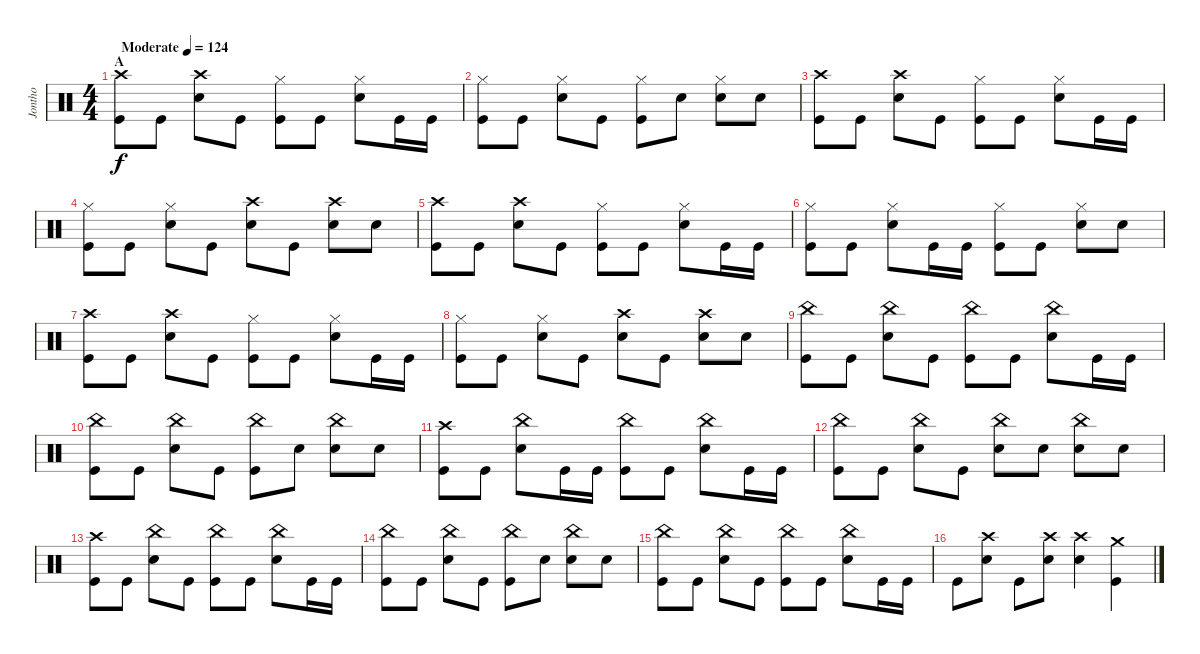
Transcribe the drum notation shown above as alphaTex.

\track ("Jontho" "Jontho") {instrument percussion}
\staff {score}
\articulation defaults
\ts (4 4)
\section ("" "A")
\tempo (124 "Moderate")
\clef neutral
\ks c
("Crash high (hit)" "Kick (hit)").8{dy f} "Kick (hit)".8 ("Crash high (hit)" "Snare (hit) 2").8 "Kick (hit)".8 ("Hi-Hat (closed)" "Kick (hit)").8 "Kick (hit)".8 ("Hi-Hat (closed)" "Snare (hit) 2").8 "Kick (hit)".16 "Kick (hit)".16 |
("Hi-Hat (closed)" "Kick (hit)").8 "Kick (hit)".8 ("Hi-Hat (closed)" "Snare (hit) 2").8 "Kick (hit)".8 ("Hi-Hat (closed)" "Kick (hit)").8 "Snare (hit) 2".8 ("Hi-Hat (closed)" "Snare (hit) 2").8 "Snare (hit) 2".8 |
("Crash high (hit)" "Kick (hit)").8 "Kick (hit)".8 ("Crash high (hit)" "Snare (hit) 2").8 "Kick (hit)".8 ("Hi-Hat (closed)" "Kick (hit)").8 "Kick (hit)".8 ("Hi-Hat (closed)" "Snare (hit) 2").8 "Kick (hit)".16 "Kick (hit)".16 |
("Hi-Hat (closed)" "Kick (hit)").8 "Kick (hit)".8 ("Hi-Hat (closed)" "Snare (hit) 2").8 "Kick (hit)".8 ("Crash high (hit)" "Snare (hit) 2").8 "Kick (hit)".8 ("Crash high (hit)" "Snare (hit) 2").8 "Snare (hit) 2".8 |
("Crash high (hit)" "Kick (hit)").8 "Kick (hit)".8 ("Crash high (hit)" "Snare (hit) 2").8 "Kick (hit)".8 ("Hi-Hat (closed)" "Kick (hit)").8 "Kick (hit)".8 ("Hi-Hat (closed)" "Snare (hit) 2").8 "Kick (hit)".16 "Kick (hit)".16 |
("Hi-Hat (closed)" "Kick (hit)").8 "Kick (hit)".8 ("Hi-Hat (closed)" "Snare (hit) 2").8 "Kick (hit)".16 "Kick (hit)".16 ("Hi-Hat (closed)" "Kick (hit)").8 "Kick (hit)".8 ("Hi-Hat (closed)" "Snare (hit) 2").8 "Snare (hit) 2".8 |
("Crash high (hit)" "Kick (hit)").8 "Kick (hit)".8 ("Crash high (hit)" "Snare (hit) 2").8 "Kick (hit)".8 ("Hi-Hat (closed)" "Kick (hit)").8 "Kick (hit)".8 ("Hi-Hat (closed)" "Snare (hit) 2").8 "Kick (hit)".16 "Kick (hit)".16 |
("Hi-Hat (closed)" "Kick (hit)").8 "Kick (hit)".8 ("Hi-Hat (closed)" "Snare (hit) 2").8 "Kick (hit)".8 ("Crash high (hit)" "Snare (hit) 2").8 "Kick (hit)".8 ("Crash high (hit)" "Snare (hit) 2").8 "Snare (hit) 2".8 |
("China (hit)" "Kick (hit)").8 "Kick (hit)".8 ("China (hit)" "Snare (hit) 2").8 "Kick (hit)".8 ("China (hit)" "Kick (hit)").8 "Kick (hit)".8 ("China (hit)" "Snare (hit) 2").8 "Kick (hit)".16 "Kick (hit)".16 |
("China (hit)" "Kick (hit)").8 "Kick (hit)".8 ("China (hit)" "Snare (hit) 2").8 "Kick (hit)".8 ("China (hit)" "Kick (hit)").8 "Snare (hit) 2".8 ("China (hit)" "Snare (hit) 2").8 "Snare (hit) 2".8 |
("Crash high (hit)" "Kick (hit)").8 "Kick (hit)".8 ("China (hit)" "Snare (hit) 2").8 "Kick (hit)".16 "Kick (hit)".16 ("China (hit)" "Kick (hit)").8 "Kick (hit)".8 ("China (hit)" "Snare (hit) 2").8 "Kick (hit)".16 "Kick (hit)".16 |
("China (hit)" "Kick (hit)").8 "Kick (hit)".8 ("China (hit)" "Snare (hit) 2").8 "Kick (hit)".8 ("China (hit)" "Snare (hit) 2").8 "Snare (hit) 2".8 ("China (hit)" "Snare (hit) 2").8 "Snare (hit) 2".8 |
("Crash high (hit)" "Kick (hit)").8 "Kick (hit)".8 ("China (hit)" "Snare (hit) 2").8 "Kick (hit)".8 ("China (hit)" "Kick (hit)").8 "Kick (hit)".8 ("China (hit)" "Snare (hit) 2").8 "Kick (hit)".16 "Kick (hit)".16 |
("China (hit)" "Kick (hit)").8 "Kick (hit)".8 ("China (hit)" "Snare (hit) 2").8 "Kick (hit)".8 ("China (hit)" "Kick (hit)").8 "Snare (hit) 2".8 ("China (hit)" "Snare (hit) 2").8 "Snare (hit) 2".8 |
("China (hit)" "Kick (hit)").8 "Kick (hit)".8 ("China (hit)" "Snare (hit) 2").8 "Kick (hit)".8 ("China (hit)" "Kick (hit)").8 "Kick (hit)".8 ("China (hit)" "Snare (hit) 2").8 "Kick (hit)".16 "Kick (hit)".16 |
"Kick (hit)".8 ("Crash high (hit)" "Snare (hit) 2").8 "Kick (hit)".8 ("Crash high (hit)" "Snare (hit) 2").8 ("Crash high (hit)" "Snare (hit) 2").4 ("Crash medium (hit)" "Kick (hit)").4
